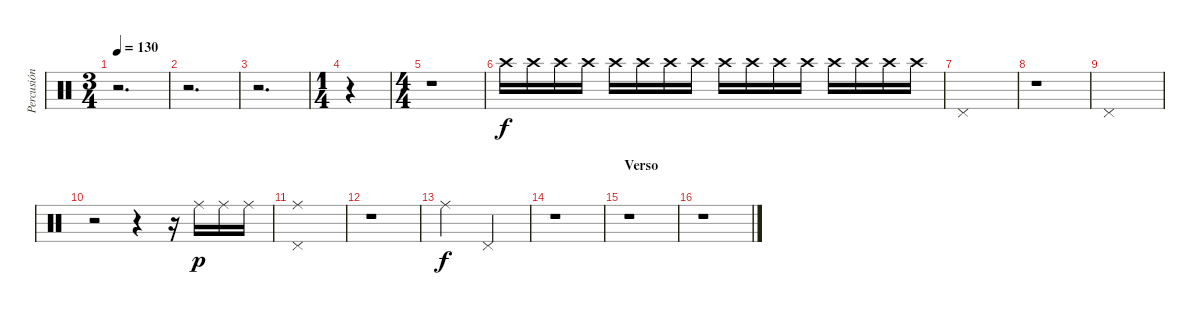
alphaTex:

\track ("Percusión" "Percusión") {instrument percussion}
\staff {score}
\articulation defaults
\ts (3 4)
\tempo 130
\clef neutral
\ks c
r.2{d dy f} |
r.2{d} |
r.2{d} |
\ts (1 4)
r.4 |
\ts (4 4)
r.1 |
"Crash high (hit)".16{volume 0} "Crash high (hit)".16{volume 13} "Crash high (hit)".16 "Crash high (hit)".16 "Crash high (hit)".16 "Crash high (hit)".16 "Crash high (hit)".16 "Crash high (hit)".16 "Crash high (hit)".16 "Crash high (hit)".16 "Crash high (hit)".16 "Crash high (hit)".16 "Crash high (hit)".16 "Crash high (hit)".16 "Crash high (hit)".16 "Crash high (hit)".16 |
"Pedal Hi-Hat (hit)".1 |
r.1 |
"Pedal Hi-Hat (hit)".1 |
r.2 r.4 r.16 "Ride (middle)".16{dy p} "Ride (middle)".16 "Ride (middle)".16 |
("Pedal Hi-Hat (hit)" "Ride (middle)").1 |
r.1 |
"Ride (middle)".2{dy f} "Pedal Hi-Hat (hit)".2 |
r.1 |
\section ("" "Verso")
r.1 |
r.1
